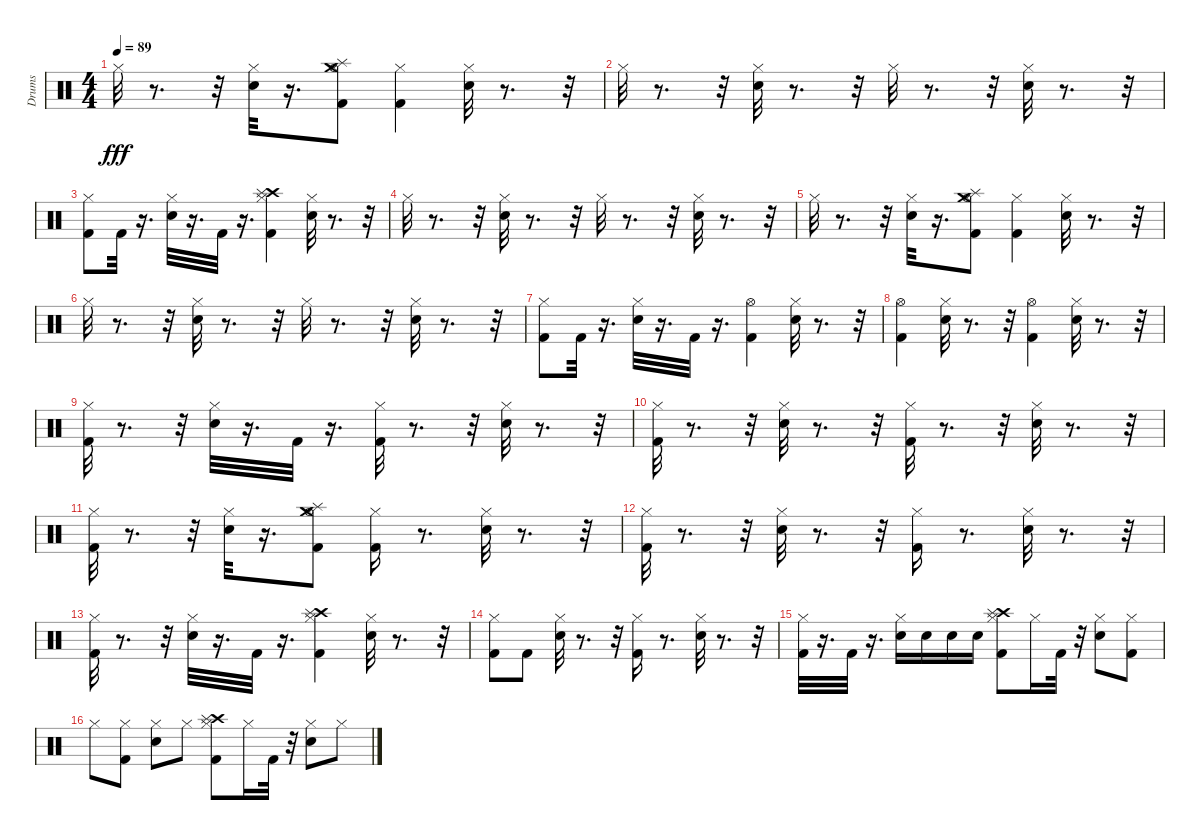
\track ("Drums" "Drums") {instrument percussion}
\staff {score}
\articulation defaults
\ts (4 4)
\tempo 89
\clef neutral
\ks c "Hi-Hat (closed)".32{dy fff}
r.8{d} r.32 ("Hi-Hat (closed)" "Snare (hit) 2").32 r.16{d} ("Hi-Hat (open)" "Splash (hit)" "Crash medium (hit)" "Kick (hit) 2").8 ("Hi-Hat (closed)" "Kick (hit) 2").4 ("Hi-Hat (closed)" "Snare (hit) 2").32 r.8{d} r.32 |
"Hi-Hat (closed)".32 r.8{d} r.32 ("Snare (hit) 2" "Hi-Hat (closed)").32 r.8{d} r.32 "Hi-Hat (closed)".32 r.8{d} r.32 ("Snare (hit) 2" "Hi-Hat (closed)").32 r.8{d} r.32 |
("Hi-Hat (closed)" "Kick (hit) 2").8 "Kick (hit) 2".32 r.16{d} ("Hi-Hat (closed)" "Snare (hit) 2").32 r.16{d} "Kick (hit) 2".32 r.16{d} ("Crash high (hit)" "Kick (hit) 2" "Hi-Hat (closed)" "Splash (hit)").4 ("Snare (hit) 2" "Hi-Hat (closed)").32 r.8{d} r.32 |
"Hi-Hat (closed)".32 r.8{d} r.32 ("Snare (hit) 2" "Hi-Hat (closed)").32 r.8{d} r.32 "Hi-Hat (closed)".32 r.8{d} r.32 ("Snare (hit) 2" "Hi-Hat (closed)").32 r.8{d} r.32 |
"Hi-Hat (closed)".32 r.8{d} r.32 ("Hi-Hat (closed)" "Snare (hit) 2").32 r.16{d} ("Crash medium (hit)" "Splash (hit)" "Kick (hit) 2" "Hi-Hat (open)").8 ("Hi-Hat (closed)" "Kick (hit) 2").4 ("Hi-Hat (closed)" "Snare (hit) 2").32 r.8{d} r.32 |
"Hi-Hat (closed)".32 r.8{d} r.32 ("Snare (hit) 2" "Hi-Hat (closed)").32 r.8{d} r.32 "Hi-Hat (closed)".32 r.8{d} r.32 ("Snare (hit) 2" "Hi-Hat (closed)").32 r.8{d} r.32 |
("Hi-Hat (closed)" "Kick (hit) 2").8 "Kick (hit) 2".32 r.16{d} ("Hi-Hat (closed)" "Snare (hit) 2").32 r.16{d} "Kick (hit) 2".32 r.16{d} ("Hi-Hat (open)" "Kick (hit) 2").4 ("Snare (hit) 2" "Hi-Hat (closed)").32 r.8{d} r.32 |
("Kick (hit) 2" "Hi-Hat (open)").4 ("Snare (hit) 2" "Hi-Hat (closed)").32 r.8{d} r.32 ("Kick (hit) 2" "Hi-Hat (open)").4 ("Snare (hit) 2" "Hi-Hat (closed)").32 r.8{d} r.32 |
("Kick (hit) 2" "Hi-Hat (closed)").32 r.8{d} r.32 ("Hi-Hat (closed)" "Snare (hit) 2").32 r.16{d} "Kick (hit) 2".32 r.16{d} ("Kick (hit) 2" "Hi-Hat (closed)").32 r.8{d} r.32 ("Snare (hit) 2" "Hi-Hat (closed)").32 r.8{d} r.32 |
("Kick (hit) 2" "Hi-Hat (closed)").32 r.8{d} r.32 ("Snare (hit) 2" "Hi-Hat (closed)").32 r.8{d} r.32 ("Kick (hit) 2" "Hi-Hat (closed)").32 r.8{d} r.32 ("Snare (hit) 2" "Hi-Hat (closed)").32 r.8{d} r.32 |
("Kick (hit) 2" "Hi-Hat (closed)").32 r.8{d} r.32 ("Snare (hit) 2" "Hi-Hat (closed)").32 r.16{d} ("Crash medium (hit)" "Splash (hit)" "Kick (hit) 2" "Hi-Hat (open)").8 ("Kick (hit) 2" "Hi-Hat (closed)").16 r.8{d} ("Snare (hit) 2" "Hi-Hat (closed)").32 r.8{d} r.32 |
("Kick (hit) 2" "Hi-Hat (closed)").32 r.8{d} r.32 ("Snare (hit) 2" "Hi-Hat (closed)").32 r.8{d} r.32 ("Kick (hit) 2" "Hi-Hat (closed)").16 r.8{d} ("Snare (hit) 2" "Hi-Hat (closed)").32 r.8{d} r.32 |
("Kick (hit) 2" "Hi-Hat (closed)").32 r.8{d} r.32 ("Hi-Hat (closed)" "Snare (hit) 2").32 r.16{d} "Kick (hit) 2".32 r.16{d} ("Kick (hit) 2" "Crash high (hit)" "Hi-Hat (closed)" "Splash (hit)").4 ("Snare (hit) 2" "Hi-Hat (closed)").32 r.8{d} r.32 |
("Kick (hit) 2" "Hi-Hat (closed)").8 "Kick (hit) 2".8 ("Snare (hit) 2" "Hi-Hat (closed)").32 r.8{d} r.32 ("Kick (hit) 2" "Hi-Hat (closed)").16 r.8{d} ("Snare (hit) 2" "Hi-Hat (closed)").32 r.8{d} r.32 |
("Kick (hit) 2" "Hi-Hat (closed)").32 r.16{d} "Kick (hit) 2".32 r.16{d} ("Snare (hit) 2" "Hi-Hat (closed)").16 "Snare (hit) 2".16 "Snare (hit) 2".16 "Snare (hit) 2".16 ("Crash high (hit)" "Splash (hit)" "Kick (hit) 2" "Hi-Hat (closed)").8 "Hi-Hat (closed)".16 "Kick (hit) 2".32 r.32 ("Snare (hit) 2" "Hi-Hat (closed)").8 ("Kick (hit) 2" "Hi-Hat (closed)").8 |
"Hi-Hat (closed)".8 ("Hi-Hat (closed)" "Kick (hit) 2").8 ("Hi-Hat (closed)" "Snare (hit) 2").8 "Hi-Hat (closed)".8 ("Crash high (hit)" "Splash (hit)" "Kick (hit) 2" "Hi-Hat (closed)").8 "Hi-Hat (closed)".16 "Kick (hit) 2".32 r.32 ("Snare (hit) 2" "Hi-Hat (closed)").8 "Hi-Hat (closed)".8
